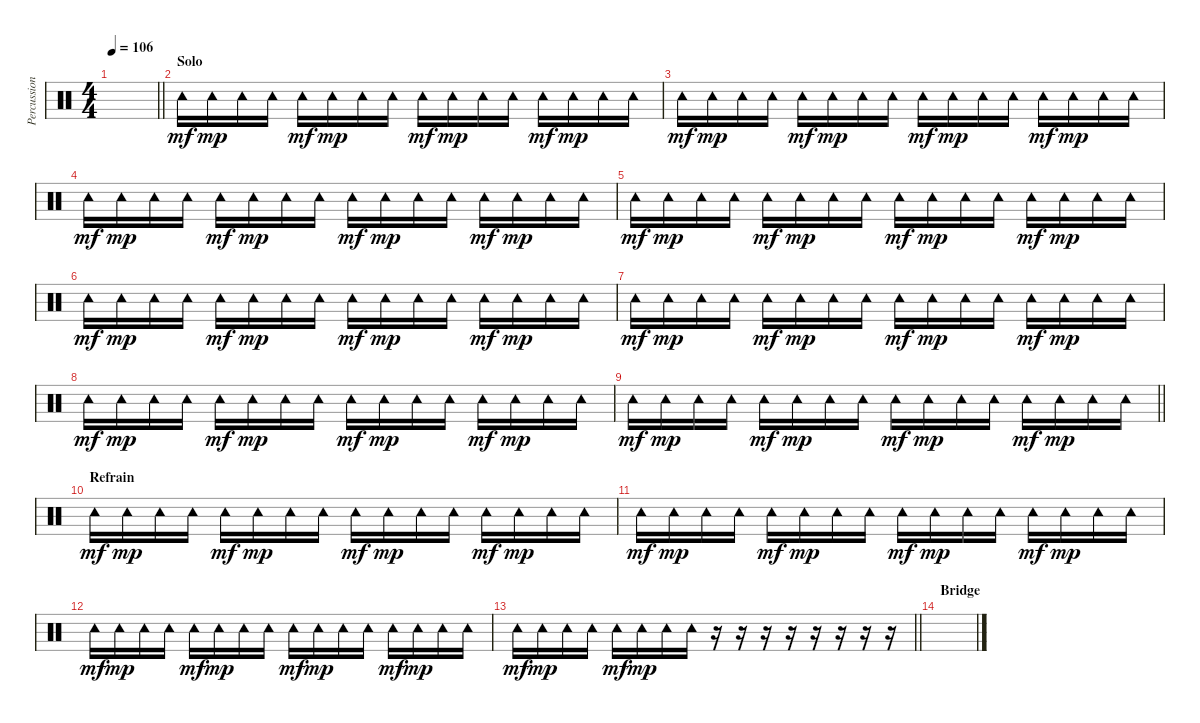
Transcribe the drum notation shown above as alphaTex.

\track ("Percussion (Tre Cool)" "Percussion") {instrument percussion}
\staff {score}
\articulation defaults
\ts (4 4)
\tempo 106
\clef neutral
\barLineRight lightlight
\ks c
|
\section ("" "Solo")
"Tambourine (hit)".16{dy mf} "Tambourine (hit)".16{dy mp} "Tambourine (hit)".16 "Tambourine (hit)".16 "Tambourine (hit)".16{dy mf} "Tambourine (hit)".16{dy mp} "Tambourine (hit)".16 "Tambourine (hit)".16 "Tambourine (hit)".16{dy mf} "Tambourine (hit)".16{dy mp} "Tambourine (hit)".16 "Tambourine (hit)".16 "Tambourine (hit)".16{dy mf} "Tambourine (hit)".16{dy mp} "Tambourine (hit)".16 "Tambourine (hit)".16 |
"Tambourine (hit)".16{dy mf} "Tambourine (hit)".16{dy mp} "Tambourine (hit)".16 "Tambourine (hit)".16 "Tambourine (hit)".16{dy mf} "Tambourine (hit)".16{dy mp} "Tambourine (hit)".16 "Tambourine (hit)".16 "Tambourine (hit)".16{dy mf} "Tambourine (hit)".16{dy mp} "Tambourine (hit)".16 "Tambourine (hit)".16 "Tambourine (hit)".16{dy mf} "Tambourine (hit)".16{dy mp} "Tambourine (hit)".16 "Tambourine (hit)".16 |
"Tambourine (hit)".16{dy mf} "Tambourine (hit)".16{dy mp} "Tambourine (hit)".16 "Tambourine (hit)".16 "Tambourine (hit)".16{dy mf} "Tambourine (hit)".16{dy mp} "Tambourine (hit)".16 "Tambourine (hit)".16 "Tambourine (hit)".16{dy mf} "Tambourine (hit)".16{dy mp} "Tambourine (hit)".16 "Tambourine (hit)".16 "Tambourine (hit)".16{dy mf} "Tambourine (hit)".16{dy mp} "Tambourine (hit)".16 "Tambourine (hit)".16 |
"Tambourine (hit)".16{dy mf} "Tambourine (hit)".16{dy mp} "Tambourine (hit)".16 "Tambourine (hit)".16 "Tambourine (hit)".16{dy mf} "Tambourine (hit)".16{dy mp} "Tambourine (hit)".16 "Tambourine (hit)".16 "Tambourine (hit)".16{dy mf} "Tambourine (hit)".16{dy mp} "Tambourine (hit)".16 "Tambourine (hit)".16 "Tambourine (hit)".16{dy mf} "Tambourine (hit)".16{dy mp} "Tambourine (hit)".16 "Tambourine (hit)".16 |
"Tambourine (hit)".16{dy mf} "Tambourine (hit)".16{dy mp} "Tambourine (hit)".16 "Tambourine (hit)".16 "Tambourine (hit)".16{dy mf} "Tambourine (hit)".16{dy mp} "Tambourine (hit)".16 "Tambourine (hit)".16 "Tambourine (hit)".16{dy mf} "Tambourine (hit)".16{dy mp} "Tambourine (hit)".16 "Tambourine (hit)".16 "Tambourine (hit)".16{dy mf} "Tambourine (hit)".16{dy mp} "Tambourine (hit)".16 "Tambourine (hit)".16 |
"Tambourine (hit)".16{dy mf} "Tambourine (hit)".16{dy mp} "Tambourine (hit)".16 "Tambourine (hit)".16 "Tambourine (hit)".16{dy mf} "Tambourine (hit)".16{dy mp} "Tambourine (hit)".16 "Tambourine (hit)".16 "Tambourine (hit)".16{dy mf} "Tambourine (hit)".16{dy mp} "Tambourine (hit)".16 "Tambourine (hit)".16 "Tambourine (hit)".16{dy mf} "Tambourine (hit)".16{dy mp} "Tambourine (hit)".16 "Tambourine (hit)".16 |
"Tambourine (hit)".16{dy mf} "Tambourine (hit)".16{dy mp} "Tambourine (hit)".16 "Tambourine (hit)".16 "Tambourine (hit)".16{dy mf} "Tambourine (hit)".16{dy mp} "Tambourine (hit)".16 "Tambourine (hit)".16 "Tambourine (hit)".16{dy mf} "Tambourine (hit)".16{dy mp} "Tambourine (hit)".16 "Tambourine (hit)".16 "Tambourine (hit)".16{dy mf} "Tambourine (hit)".16{dy mp} "Tambourine (hit)".16 "Tambourine (hit)".16 |
\barLineRight lightlight "Tambourine (hit)".16{dy mf} "Tambourine (hit)".16{dy mp} "Tambourine (hit)".16 "Tambourine (hit)".16 "Tambourine (hit)".16{dy mf} "Tambourine (hit)".16{dy mp} "Tambourine (hit)".16 "Tambourine (hit)".16 "Tambourine (hit)".16{dy mf} "Tambourine (hit)".16{dy mp} "Tambourine (hit)".16 "Tambourine (hit)".16 "Tambourine (hit)".16{dy mf} "Tambourine (hit)".16{dy mp} "Tambourine (hit)".16 "Tambourine (hit)".16
|
\section ("" "Refrain")
"Tambourine (hit)".16{dy mf} "Tambourine (hit)".16{dy mp} "Tambourine (hit)".16 "Tambourine (hit)".16 "Tambourine (hit)".16{dy mf} "Tambourine (hit)".16{dy mp} "Tambourine (hit)".16 "Tambourine (hit)".16 "Tambourine (hit)".16{dy mf} "Tambourine (hit)".16{dy mp} "Tambourine (hit)".16 "Tambourine (hit)".16 "Tambourine (hit)".16{dy mf} "Tambourine (hit)".16{dy mp} "Tambourine (hit)".16 "Tambourine (hit)".16 |
"Tambourine (hit)".16{dy mf} "Tambourine (hit)".16{dy mp} "Tambourine (hit)".16 "Tambourine (hit)".16 "Tambourine (hit)".16{dy mf} "Tambourine (hit)".16{dy mp} "Tambourine (hit)".16 "Tambourine (hit)".16 "Tambourine (hit)".16{dy mf} "Tambourine (hit)".16{dy mp} "Tambourine (hit)".16 "Tambourine (hit)".16 "Tambourine (hit)".16{dy mf} "Tambourine (hit)".16{dy mp} "Tambourine (hit)".16 "Tambourine (hit)".16 |
"Tambourine (hit)".16{dy mf} "Tambourine (hit)".16{dy mp} "Tambourine (hit)".16 "Tambourine (hit)".16 "Tambourine (hit)".16{dy mf} "Tambourine (hit)".16{dy mp} "Tambourine (hit)".16 "Tambourine (hit)".16 "Tambourine (hit)".16{dy mf} "Tambourine (hit)".16{dy mp} "Tambourine (hit)".16 "Tambourine (hit)".16 "Tambourine (hit)".16{dy mf} "Tambourine (hit)".16{dy mp} "Tambourine (hit)".16 "Tambourine (hit)".16 |
\barLineRight lightlight "Tambourine (hit)".16{dy mf} "Tambourine (hit)".16{dy mp} "Tambourine (hit)".16 "Tambourine (hit)".16 "Tambourine (hit)".16{dy mf} "Tambourine (hit)".16{dy mp} "Tambourine (hit)".16 "Tambourine (hit)".16
r.16 r.16 r.16 r.16 r.16 r.16 r.16 r.16 |
\section ("" "Bridge")
